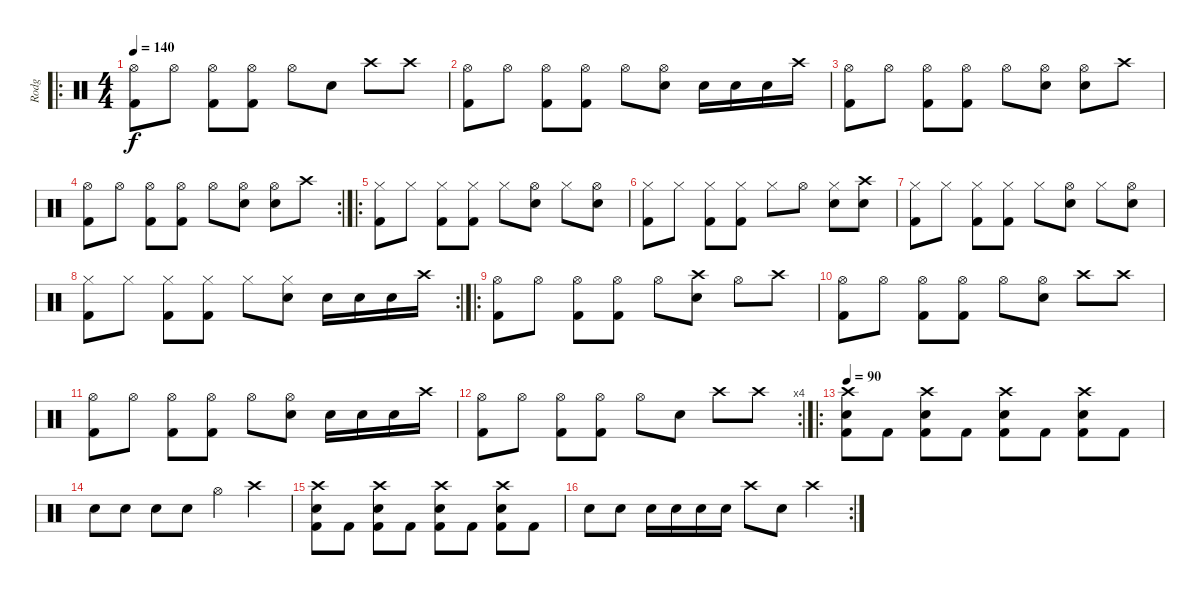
\track ("Rodg" "Rodg") {instrument percussion}
\staff {score}
\articulation defaults
\ro
\ts (4 4)
\tempo 140
\clef neutral
\ks c
("Hi-Hat (open)" "Kick (hit) 2").8{dy f} "Hi-Hat (open)".8 ("Hi-Hat (open)" "Kick (hit) 2").8 ("Hi-Hat (open)" "Kick (hit) 2").8 "Hi-Hat (open)".8 "Electric Snare (hit)".8 "Crash high (hit)".8 "Crash high (hit)".8 |
("Hi-Hat (open)" "Kick (hit) 2").8 "Hi-Hat (open)".8 ("Hi-Hat (open)" "Kick (hit) 2").8 ("Hi-Hat (open)" "Kick (hit) 2").8 "Hi-Hat (open)".8 ("Hi-Hat (open)" "Electric Snare (hit)").8 "Electric Snare (hit)".16 "Electric Snare (hit)".16 "Electric Snare (hit)".16 "Crash high (hit)".16 |
("Hi-Hat (open)" "Kick (hit) 2").8 "Hi-Hat (open)".8 ("Hi-Hat (open)" "Kick (hit) 2").8 ("Hi-Hat (open)" "Kick (hit) 2").8 "Hi-Hat (open)".8 ("Hi-Hat (open)" "Electric Snare (hit)").8 ("Hi-Hat (open)" "Electric Snare (hit)").8 "Crash high (hit)".8 |
\rc 2
("Hi-Hat (open)" "Kick (hit) 2").8 "Hi-Hat (open)".8 ("Hi-Hat (open)" "Kick (hit) 2").8 ("Hi-Hat (open)" "Kick (hit) 2").8 "Hi-Hat (open)".8 ("Hi-Hat (open)" "Electric Snare (hit)").8 ("Hi-Hat (open)" "Electric Snare (hit)").8 "Crash high (hit)".8 |
\ro
("Hi-Hat (closed)" "Kick (hit) 2").8 "Hi-Hat (closed)".8 ("Hi-Hat (closed)" "Kick (hit) 2").8 ("Hi-Hat (closed)" "Kick (hit) 2").8 "Hi-Hat (closed)".8 ("Hi-Hat (open)" "Electric Snare (hit)").8 "Hi-Hat (closed)".8 ("Hi-Hat (open)" "Electric Snare (hit)").8 |
("Hi-Hat (closed)" "Kick (hit) 2").8 "Hi-Hat (closed)".8 ("Hi-Hat (closed)" "Kick (hit) 2").8 ("Hi-Hat (closed)" "Kick (hit) 2").8 "Hi-Hat (closed)".8 "Hi-Hat (open)".8 ("Hi-Hat (closed)" "Electric Snare (hit)").8 ("Crash high (hit)" "Electric Snare (hit)").8 |
("Hi-Hat (closed)" "Kick (hit) 2").8 "Hi-Hat (closed)".8 ("Hi-Hat (closed)" "Kick (hit) 2").8 ("Hi-Hat (closed)" "Kick (hit) 2").8 "Hi-Hat (closed)".8 ("Hi-Hat (open)" "Electric Snare (hit)").8 "Hi-Hat (closed)".8 ("Hi-Hat (open)" "Electric Snare (hit)").8 |
\rc 2
("Hi-Hat (closed)" "Kick (hit) 2").8 "Hi-Hat (closed)".8 ("Hi-Hat (closed)" "Kick (hit) 2").8 ("Hi-Hat (closed)" "Kick (hit) 2").8 "Hi-Hat (closed)".8 ("Hi-Hat (closed)" "Electric Snare (hit)").8 "Electric Snare (hit)".16 "Electric Snare (hit)".16 "Electric Snare (hit)".16 "Crash high (hit)".16 |
\ro
("Hi-Hat (open)" "Kick (hit) 2").8 "Hi-Hat (open)".8 ("Hi-Hat (open)" "Kick (hit) 2").8 ("Hi-Hat (open)" "Kick (hit) 2").8 "Hi-Hat (open)".8 ("Crash high (hit)" "Electric Snare (hit)").8 "Hi-Hat (open)".8 "Crash high (hit)".8 |
("Hi-Hat (open)" "Kick (hit) 2").8 "Hi-Hat (open)".8 ("Hi-Hat (open)" "Kick (hit) 2").8 ("Hi-Hat (open)" "Kick (hit) 2").8 "Hi-Hat (open)".8 ("Hi-Hat (open)" "Electric Snare (hit)").8 "Crash high (hit)".8 "Crash high (hit)".8 |
("Hi-Hat (open)" "Kick (hit) 2").8 "Hi-Hat (open)".8 ("Hi-Hat (open)" "Kick (hit) 2").8 ("Hi-Hat (open)" "Kick (hit) 2").8 "Hi-Hat (open)".8 ("Hi-Hat (open)" "Electric Snare (hit)").8 "Electric Snare (hit)".16 "Electric Snare (hit)".16 "Electric Snare (hit)".16 "Crash high (hit)".16 |
\rc 4
("Hi-Hat (open)" "Kick (hit) 2").8 "Hi-Hat (open)".8 ("Hi-Hat (open)" "Kick (hit) 2").8 ("Hi-Hat (open)" "Kick (hit) 2").8 "Hi-Hat (open)".8 "Electric Snare (hit)".8 "Crash high (hit)".8 "Crash high (hit)".8 |
\ro
\tempo 90
("Crash high (hit)" "Electric Snare (hit)" "Kick (hit) 2").8 "Kick (hit) 2".8 ("Crash high (hit)" "Electric Snare (hit)" "Kick (hit) 2").8 "Kick (hit) 2".8 ("Crash high (hit)" "Electric Snare (hit)" "Kick (hit) 2").8 "Kick (hit) 2".8 ("Crash high (hit)" "Electric Snare (hit)" "Kick (hit) 2").8 "Kick (hit) 2".8 |
"Electric Snare (hit)".8 "Electric Snare (hit)".8 "Electric Snare (hit)".8 "Electric Snare (hit)".8 "Hi-Hat (open)".4 "Crash high (hit)".4 |
("Crash high (hit)" "Electric Snare (hit)" "Kick (hit) 2").8 "Kick (hit) 2".8 ("Crash high (hit)" "Electric Snare (hit)" "Kick (hit) 2").8 "Kick (hit) 2".8 ("Crash high (hit)" "Electric Snare (hit)" "Kick (hit) 2").8 "Kick (hit) 2".8 ("Crash high (hit)" "Electric Snare (hit)" "Kick (hit) 2").8 "Kick (hit) 2".8 |
\rc 2 "Electric Snare (hit)".8 "Electric Snare (hit)".8 "Electric Snare (hit)".16 "Electric Snare (hit)".16 "Electric Snare (hit)".16 "Electric Snare (hit)".16 "Crash high (hit)".8 "Electric Snare (hit)".8 "Crash high (hit)".4
